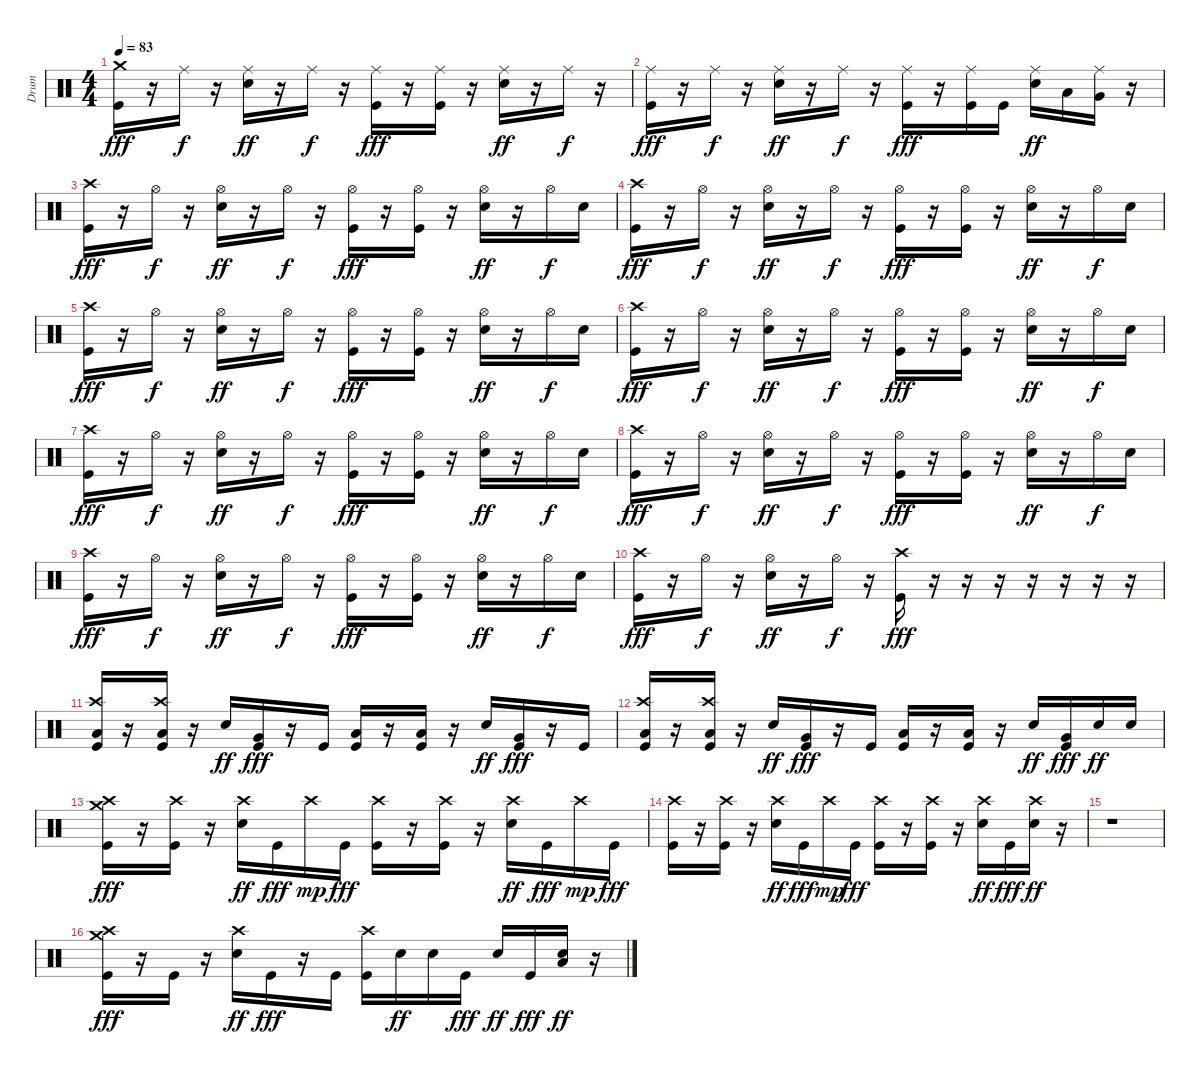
\track ("Drum" "Drum") {instrument percussion}
\staff {score}
\articulation defaults
\ts (4 4)
\tempo 83
\clef neutral
\ks c
("Crash medium (hit)" "Kick (hit)").16{dy fff} r.16 "Ride (middle)".16{dy f} r.16 ("Ride (middle)" "Snare (hit) 2").16{dy ff} r.16 "Ride (middle)".16{dy f} r.16 ("Ride (middle)" "Kick (hit)").16{dy fff} r.16 ("Ride (middle)" "Kick (hit)").16 r.16 ("Ride (middle)" "Snare (hit) 2").16{dy ff} r.16 "Ride (middle)".16{dy f} r.16 |
("Ride (middle)" "Kick (hit)").16{dy fff} r.16 "Ride (middle)".16{dy f} r.16 ("Ride (middle)" "Snare (hit) 2").16{dy ff} r.16 "Ride (middle)".16{dy f} r.16 ("Ride (middle)" "Kick (hit)").16{dy fff} r.16 ("Ride (middle)" "Kick (hit)").16 "Kick (hit)".16 ("Ride (middle)" "Snare (hit) 2").16{dy ff} "Low Tom (hit)".16 ("Ride (middle)" "Very Low Tom (hit)").16 r.16 |
("Crash high (hit)" "Kick (hit)").16{dy fff} r.16 "Hi-Hat (open)".16{dy f} r.16 ("Hi-Hat (open)" "Snare (hit) 2").16{dy ff} r.16 "Hi-Hat (open)".16{dy f} r.16 ("Hi-Hat (open)" "Kick (hit)").16{dy fff} r.16 ("Hi-Hat (open)" "Kick (hit)").16 r.16 ("Hi-Hat (open)" "Snare (hit) 2").16{dy ff} r.16 "Hi-Hat (open)".16{dy f} "Snare (hit) 2".16 |
("Crash high (hit)" "Kick (hit)").16{dy fff} r.16 "Hi-Hat (open)".16{dy f} r.16 ("Hi-Hat (open)" "Snare (hit) 2").16{dy ff} r.16 "Hi-Hat (open)".16{dy f} r.16 ("Hi-Hat (open)" "Kick (hit)").16{dy fff} r.16 ("Hi-Hat (open)" "Kick (hit)").16 r.16 ("Hi-Hat (open)" "Snare (hit) 2").16{dy ff} r.16 "Hi-Hat (open)".16{dy f} "Snare (hit) 2".16 |
("Crash high (hit)" "Kick (hit)").16{dy fff} r.16 "Hi-Hat (open)".16{dy f} r.16 ("Hi-Hat (open)" "Snare (hit) 2").16{dy ff} r.16 "Hi-Hat (open)".16{dy f} r.16 ("Hi-Hat (open)" "Kick (hit)").16{dy fff} r.16 ("Hi-Hat (open)" "Kick (hit)").16 r.16 ("Hi-Hat (open)" "Snare (hit) 2").16{dy ff} r.16 "Hi-Hat (open)".16{dy f} "Snare (hit) 2".16 |
("Crash high (hit)" "Kick (hit)").16{dy fff} r.16 "Hi-Hat (open)".16{dy f} r.16 ("Hi-Hat (open)" "Snare (hit) 2").16{dy ff} r.16 "Hi-Hat (open)".16{dy f} r.16 ("Hi-Hat (open)" "Kick (hit)").16{dy fff} r.16 ("Hi-Hat (open)" "Kick (hit)").16 r.16 ("Hi-Hat (open)" "Snare (hit) 2").16{dy ff} r.16 "Hi-Hat (open)".16{dy f} "Snare (hit) 2".16 |
("Crash high (hit)" "Kick (hit)").16{dy fff} r.16 "Hi-Hat (open)".16{dy f} r.16 ("Hi-Hat (open)" "Snare (hit) 2").16{dy ff} r.16 "Hi-Hat (open)".16{dy f} r.16 ("Hi-Hat (open)" "Kick (hit)").16{dy fff} r.16 ("Hi-Hat (open)" "Kick (hit)").16 r.16 ("Hi-Hat (open)" "Snare (hit) 2").16{dy ff} r.16 "Hi-Hat (open)".16{dy f} "Snare (hit) 2".16 |
("Crash high (hit)" "Kick (hit)").16{dy fff} r.16 "Hi-Hat (open)".16{dy f} r.16 ("Hi-Hat (open)" "Snare (hit) 2").16{dy ff} r.16 "Hi-Hat (open)".16{dy f} r.16 ("Hi-Hat (open)" "Kick (hit)").16{dy fff} r.16 ("Hi-Hat (open)" "Kick (hit)").16 r.16 ("Hi-Hat (open)" "Snare (hit) 2").16{dy ff} r.16 "Hi-Hat (open)".16{dy f} "Snare (hit) 2".16 |
("Crash high (hit)" "Kick (hit)").16{dy fff} r.16 "Hi-Hat (open)".16{dy f} r.16 ("Hi-Hat (open)" "Snare (hit) 2").16{dy ff} r.16 "Hi-Hat (open)".16{dy f} r.16 ("Hi-Hat (open)" "Kick (hit)").16{dy fff} r.16 ("Hi-Hat (open)" "Kick (hit)").16 r.16 ("Hi-Hat (open)" "Snare (hit) 2").16{dy ff} r.16 "Hi-Hat (open)".16{dy f} "Snare (hit) 2".16 |
("Crash high (hit)" "Kick (hit)").16{dy fff} r.16 "Hi-Hat (open)".16{dy f} r.16 ("Hi-Hat (open)" "Snare (hit) 2").16{dy ff} r.16 "Hi-Hat (open)".16{dy f} r.16 ("Crash high (hit)" "Kick (hit)").16{dy fff} r.16 r.16 r.16 r.16 r.16 r.16 r.16 |
("Crash high (hit)" "Low Floor Tom (hit)" "Kick (hit)").16 r.16 ("Crash high (hit)" "Low Floor Tom (hit)" "Kick (hit)").16 r.16 "Snare (hit) 2".16{dy ff} ("Very Low Tom (hit)" "Kick (hit)").16{dy fff} r.16 "Kick (hit)".16 ("Low Floor Tom (hit)" "Kick (hit)").16 r.16 ("Low Floor Tom (hit)" "Kick (hit)").16 r.16 "Snare (hit) 2".16{dy ff} ("Very Low Tom (hit)" "Kick (hit)").16{dy fff} r.16 "Kick (hit)".16 |
("Crash high (hit)" "Low Floor Tom (hit)" "Kick (hit)").16 r.16 ("Crash high (hit)" "Low Floor Tom (hit)" "Kick (hit)").16 r.16 "Snare (hit) 2".16{dy ff} ("Very Low Tom (hit)" "Kick (hit)").16{dy fff} r.16 "Kick (hit)".16 ("Low Floor Tom (hit)" "Kick (hit)").16 r.16 ("Low Floor Tom (hit)" "Kick (hit)").16 r.16 "Snare (hit) 2".16{dy ff} ("Very Low Tom (hit)" "Kick (hit)").16{dy fff} "Snare (hit) 2".16{dy ff} "Snare (hit) 2".16 |
("Crash medium (hit)" "Crash high (hit)" "Kick (hit)").16{dy fff} r.16 ("Crash high (hit)" "Kick (hit)").16 r.16 ("Crash high (hit)" "Snare (hit) 2").16{dy ff} "Kick (hit)".16{dy fff} "Crash high (hit)".16{dy mp} "Kick (hit)".16{dy fff} ("Crash high (hit)" "Kick (hit)").16 r.16 ("Crash high (hit)" "Kick (hit)").16 r.16 ("Crash high (hit)" "Snare (hit) 2").16{dy ff} "Kick (hit)".16{dy fff} "Crash high (hit)".16{dy mp} "Kick (hit)".16{dy fff} |
("Crash high (hit)" "Kick (hit)").16 r.16 ("Crash high (hit)" "Kick (hit)").16 r.16 ("Crash high (hit)" "Snare (hit) 2").16{dy ff} "Kick (hit)".16{dy fff} "Crash high (hit)".16{dy mp} "Kick (hit)".16{dy fff} ("Crash high (hit)" "Kick (hit)").16 r.16 ("Crash high (hit)" "Kick (hit)").16 r.16 ("Crash high (hit)" "Snare (hit) 2").16{dy ff} "Kick (hit)".16{dy fff volume 16} ("Crash high (hit)" "Snare (hit) 2").16{dy ff volume 13} r.16 |
r.1 |
("Crash medium (hit)" "Crash high (hit)" "Kick (hit)").16{dy fff} r.16 "Kick (hit)".16 r.16 ("Crash high (hit)" "Snare (hit) 2").16{dy ff} "Kick (hit)".16{dy fff} r.16 "Kick (hit)".16 ("Crash high (hit)" "Kick (hit)").16 "Snare (hit) 2".16{dy ff} "Snare (hit) 2".16 "Kick (hit)".16{dy fff} "Snare (hit) 2".16{dy ff} "Kick (hit)".16{dy fff} ("Low Floor Tom (hit)" "Snare (hit) 2").16{dy ff} r.16
